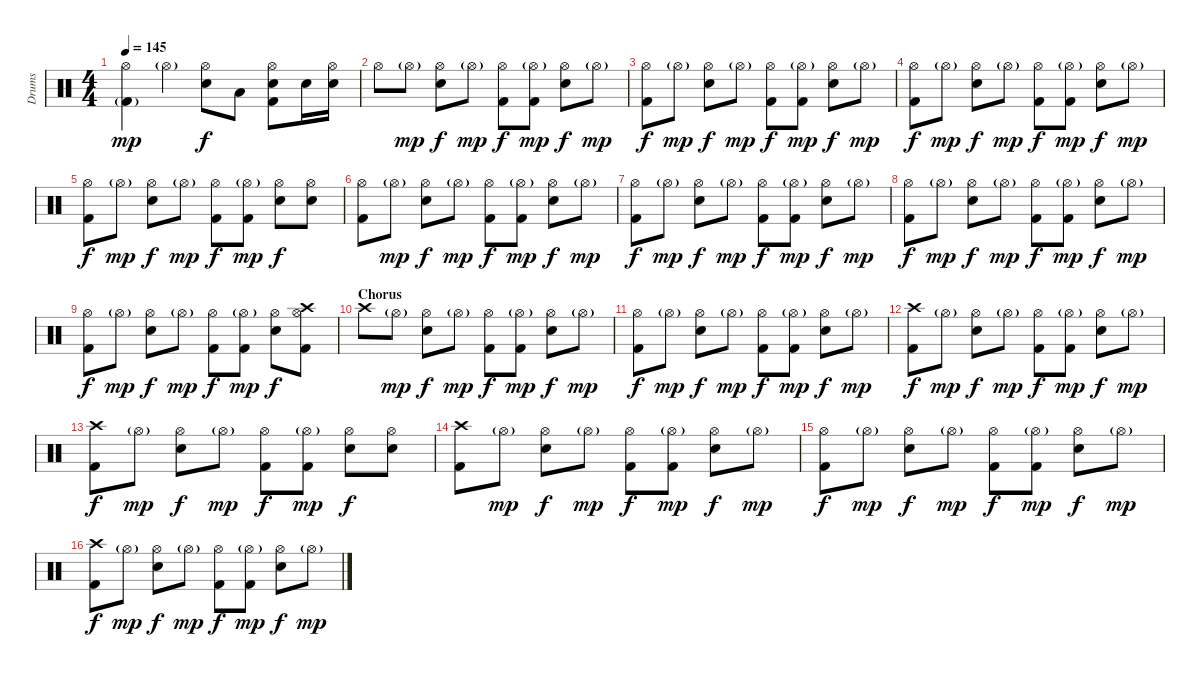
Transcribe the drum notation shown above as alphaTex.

\track ("Drums" "Drums") {instrument percussion}
\staff {score}
\articulation defaults
\ts (4 4)
\tempo 145
\clef neutral
\ks c
("Hi-Hat (open)" "Kick (hit) 2"{g}).4{dy mp} "Hi-Hat (open)"{g}.4 ("Hi-Hat (open)" "Electric Snare (hit)").8{dy f} "Low Floor Tom (hit)".8 ("Hi-Hat (open)" "Electric Snare (hit)" "Kick (hit) 2").8 "Electric Snare (hit)".16 ("Hi-Hat (open)" "Electric Snare (hit)").16 |
"Hi-Hat (open)".8 "Hi-Hat (open)"{g}.8{dy mp} ("Hi-Hat (open)" "Electric Snare (hit)").8{dy f} "Hi-Hat (open)"{g}.8{dy mp} ("Hi-Hat (open)" "Kick (hit) 2").8{dy f} ("Hi-Hat (open)"{g} "Kick (hit) 2").8{dy mp} ("Hi-Hat (open)" "Electric Snare (hit)").8{dy f} "Hi-Hat (open)"{g}.8{dy mp} |
("Hi-Hat (open)" "Kick (hit) 2").8{dy f} "Hi-Hat (open)"{g}.8{dy mp} ("Hi-Hat (open)" "Electric Snare (hit)").8{dy f} "Hi-Hat (open)"{g}.8{dy mp} ("Hi-Hat (open)" "Kick (hit) 2").8{dy f} ("Hi-Hat (open)"{g} "Kick (hit) 2").8{dy mp} ("Hi-Hat (open)" "Electric Snare (hit)").8{dy f} "Hi-Hat (open)"{g}.8{dy mp} |
("Hi-Hat (open)" "Kick (hit) 2").8{dy f} "Hi-Hat (open)"{g}.8{dy mp} ("Hi-Hat (open)" "Electric Snare (hit)").8{dy f} "Hi-Hat (open)"{g}.8{dy mp} ("Hi-Hat (open)" "Kick (hit) 2").8{dy f} ("Hi-Hat (open)"{g} "Kick (hit) 2").8{dy mp} ("Hi-Hat (open)" "Electric Snare (hit)").8{dy f} "Hi-Hat (open)"{g}.8{dy mp} |
("Hi-Hat (open)" "Kick (hit) 2").8{dy f} "Hi-Hat (open)"{g}.8{dy mp} ("Hi-Hat (open)" "Electric Snare (hit)").8{dy f} "Hi-Hat (open)"{g}.8{dy mp} ("Hi-Hat (open)" "Kick (hit) 2").8{dy f} ("Hi-Hat (open)"{g} "Kick (hit) 2").8{dy mp} ("Hi-Hat (open)" "Electric Snare (hit)").8{dy f} ("Hi-Hat (open)" "Electric Snare (hit)").8 |
("Hi-Hat (open)" "Kick (hit) 2").8 "Hi-Hat (open)"{g}.8{dy mp} ("Hi-Hat (open)" "Electric Snare (hit)").8{dy f} "Hi-Hat (open)"{g}.8{dy mp} ("Hi-Hat (open)" "Kick (hit) 2").8{dy f} ("Hi-Hat (open)"{g} "Kick (hit) 2").8{dy mp} ("Hi-Hat (open)" "Electric Snare (hit)").8{dy f} "Hi-Hat (open)"{g}.8{dy mp} |
("Hi-Hat (open)" "Kick (hit) 2").8{dy f} "Hi-Hat (open)"{g}.8{dy mp} ("Hi-Hat (open)" "Electric Snare (hit)").8{dy f} "Hi-Hat (open)"{g}.8{dy mp} ("Hi-Hat (open)" "Kick (hit) 2").8{dy f} ("Hi-Hat (open)"{g} "Kick (hit) 2").8{dy mp} ("Hi-Hat (open)" "Electric Snare (hit)").8{dy f} "Hi-Hat (open)"{g}.8{dy mp} |
("Hi-Hat (open)" "Kick (hit) 2").8{dy f} "Hi-Hat (open)"{g}.8{dy mp} ("Hi-Hat (open)" "Electric Snare (hit)").8{dy f} "Hi-Hat (open)"{g}.8{dy mp} ("Hi-Hat (open)" "Kick (hit) 2").8{dy f} ("Hi-Hat (open)"{g} "Kick (hit) 2").8{dy mp} ("Hi-Hat (open)" "Electric Snare (hit)").8{dy f} "Hi-Hat (open)"{g}.8{dy mp} |
("Hi-Hat (open)" "Kick (hit) 2").8{dy f} "Hi-Hat (open)"{g}.8{dy mp} ("Hi-Hat (open)" "Electric Snare (hit)").8{dy f} "Hi-Hat (open)"{g}.8{dy mp} ("Hi-Hat (open)" "Kick (hit) 2").8{dy f} ("Hi-Hat (open)"{g} "Kick (hit) 2").8{dy mp} ("Hi-Hat (open)" "Electric Snare (hit)").8{dy f} ("Hi-Hat (open)" "Kick (hit) 2" "Crash high (hit)").8 |
\section ("" "Chorus")
"Crash high (hit)".8 "Hi-Hat (open)"{g}.8{dy mp} ("Hi-Hat (open)" "Electric Snare (hit)").8{dy f} "Hi-Hat (open)"{g}.8{dy mp} ("Hi-Hat (open)" "Kick (hit) 2").8{dy f} ("Hi-Hat (open)"{g} "Kick (hit) 2").8{dy mp} ("Hi-Hat (open)" "Electric Snare (hit)").8{dy f} "Hi-Hat (open)"{g}.8{dy mp} |
("Hi-Hat (open)" "Kick (hit) 2").8{dy f} "Hi-Hat (open)"{g}.8{dy mp} ("Hi-Hat (open)" "Electric Snare (hit)").8{dy f} "Hi-Hat (open)"{g}.8{dy mp} ("Hi-Hat (open)" "Kick (hit) 2").8{dy f} ("Hi-Hat (open)"{g} "Kick (hit) 2").8{dy mp} ("Hi-Hat (open)" "Electric Snare (hit)").8{dy f} "Hi-Hat (open)"{g}.8{dy mp} |
("Crash high (hit)" "Kick (hit) 2").8{dy f} "Hi-Hat (open)"{g}.8{dy mp} ("Hi-Hat (open)" "Electric Snare (hit)").8{dy f} "Hi-Hat (open)"{g}.8{dy mp} ("Hi-Hat (open)" "Kick (hit) 2").8{dy f} ("Hi-Hat (open)"{g} "Kick (hit) 2").8{dy mp} ("Hi-Hat (open)" "Electric Snare (hit)").8{dy f} "Hi-Hat (open)"{g}.8{dy mp} |
("Crash high (hit)" "Kick (hit) 2").8{dy f} "Hi-Hat (open)"{g}.8{dy mp} ("Hi-Hat (open)" "Electric Snare (hit)").8{dy f} "Hi-Hat (open)"{g}.8{dy mp} ("Hi-Hat (open)" "Kick (hit) 2").8{dy f} ("Hi-Hat (open)"{g} "Kick (hit) 2").8{dy mp} ("Hi-Hat (open)" "Electric Snare (hit)").8{dy f} ("Hi-Hat (open)" "Electric Snare (hit)").8 |
("Crash high (hit)" "Kick (hit) 2").8 "Hi-Hat (open)"{g}.8{dy mp} ("Hi-Hat (open)" "Electric Snare (hit)").8{dy f} "Hi-Hat (open)"{g}.8{dy mp} ("Hi-Hat (open)" "Kick (hit) 2").8{dy f} ("Hi-Hat (open)"{g} "Kick (hit) 2").8{dy mp} ("Hi-Hat (open)" "Electric Snare (hit)").8{dy f} "Hi-Hat (open)"{g}.8{dy mp} |
("Hi-Hat (open)" "Kick (hit) 2").8{dy f} "Hi-Hat (open)"{g}.8{dy mp} ("Hi-Hat (open)" "Electric Snare (hit)").8{dy f} "Hi-Hat (open)"{g}.8{dy mp} ("Hi-Hat (open)" "Kick (hit) 2").8{dy f} ("Hi-Hat (open)"{g} "Kick (hit) 2").8{dy mp} ("Hi-Hat (open)" "Electric Snare (hit)").8{dy f} "Hi-Hat (open)"{g}.8{dy mp} |
("Crash high (hit)" "Kick (hit) 2").8{dy f} "Hi-Hat (open)"{g}.8{dy mp} ("Hi-Hat (open)" "Electric Snare (hit)").8{dy f} "Hi-Hat (open)"{g}.8{dy mp} ("Hi-Hat (open)" "Kick (hit) 2").8{dy f} ("Hi-Hat (open)"{g} "Kick (hit) 2").8{dy mp} ("Hi-Hat (open)" "Electric Snare (hit)").8{dy f} "Hi-Hat (open)"{g}.8{dy mp}
